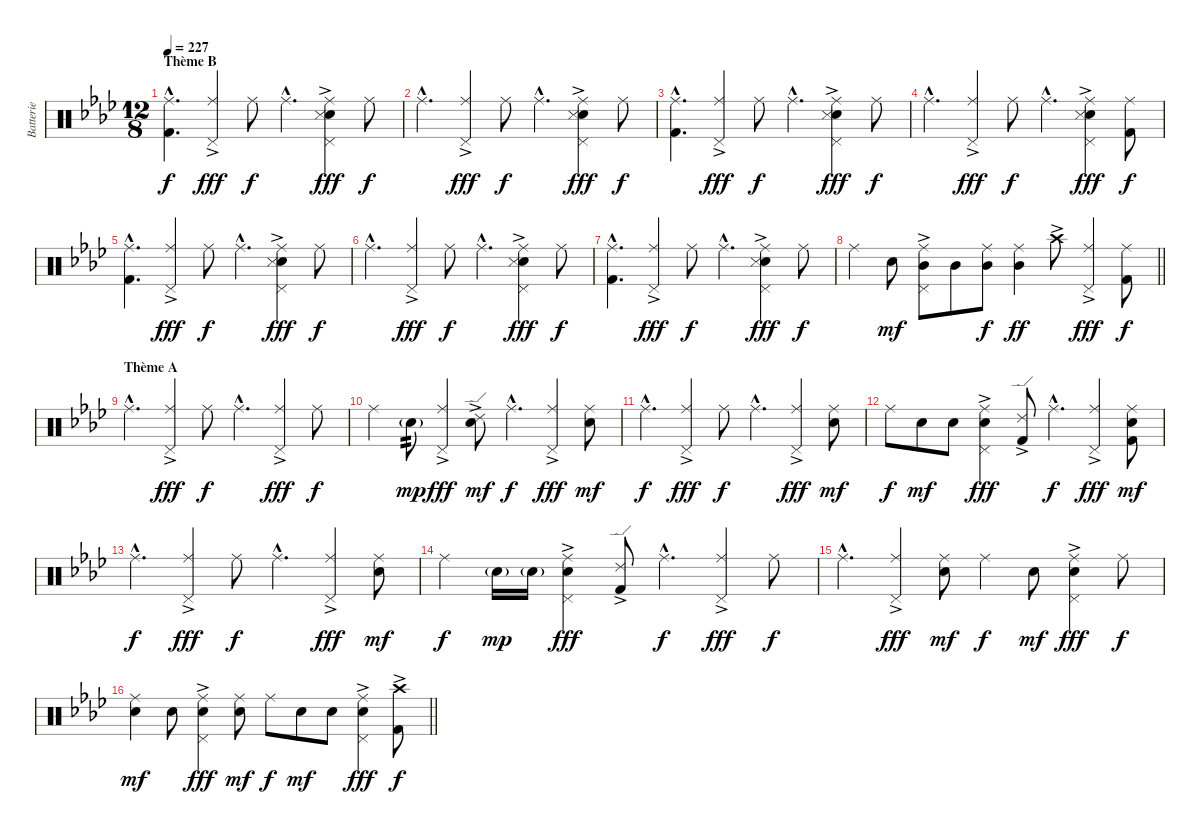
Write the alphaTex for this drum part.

\track ("Batterie" "Batterie") {instrument percussion}
\staff {score}
\articulation defaults
\ts (12 8)
\section ("" "Thème B")
\tempo 227
\clef neutral
\ks fminor
("Ride (middle)"{hac} "Kick (hit) 2"{hac}).4{d dy f volume 13 balance 8} ("Ride (middle)" "Pedal Hi-Hat (hit)"{ac}).4{dy fff} "Ride (middle)".8{dy f} "Ride (middle)"{hac}.4{d} ("Ride (middle)" "Pedal Hi-Hat (hit)"{ac} "Snare (hit) 2"{ac} "Snare (side stick) 3"{ac}).4{dy fff} "Ride (middle)".8{dy f} |
"Ride (middle)"{hac}.4{d} ("Ride (middle)" "Pedal Hi-Hat (hit)"{ac}).4{dy fff} "Ride (middle)".8{dy f} "Ride (middle)"{hac}.4{d} ("Ride (middle)" "Pedal Hi-Hat (hit)"{ac} "Snare (hit) 2"{ac} "Snare (side stick) 3"{ac}).4{dy fff} "Ride (middle)".8{dy f} |
("Ride (middle)"{hac} "Kick (hit) 2"{hac}).4{d} ("Ride (middle)" "Pedal Hi-Hat (hit)"{ac}).4{dy fff} "Ride (middle)".8{dy f} "Ride (middle)"{hac}.4{d} ("Ride (middle)" "Pedal Hi-Hat (hit)"{ac} "Snare (hit) 2"{ac} "Snare (side stick) 3"{ac}).4{dy fff} "Ride (middle)".8{dy f} |
"Ride (middle)"{hac}.4{d} ("Ride (middle)" "Pedal Hi-Hat (hit)"{ac}).4{dy fff} "Ride (middle)".8{dy f} "Ride (middle)"{hac}.4{d} ("Ride (middle)" "Pedal Hi-Hat (hit)"{ac} "Snare (hit) 2"{ac} "Snare (side stick) 3"{ac}).4{dy fff} ("Ride (middle)" "Kick (hit) 2").8{dy f} |
("Ride (middle)"{hac} "Kick (hit) 2"{hac}).4{d} ("Ride (middle)" "Pedal Hi-Hat (hit)"{ac}).4{dy fff} "Ride (middle)".8{dy f} "Ride (middle)"{hac}.4{d} ("Ride (middle)" "Pedal Hi-Hat (hit)"{ac} "Snare (hit) 2"{ac} "Snare (side stick) 3"{ac}).4{dy fff} "Ride (middle)".8{dy f} |
"Ride (middle)"{hac}.4{d} ("Ride (middle)" "Pedal Hi-Hat (hit)"{ac}).4{dy fff} "Ride (middle)".8{dy f} "Ride (middle)"{hac}.4{d} ("Ride (middle)" "Pedal Hi-Hat (hit)"{ac} "Snare (hit) 2"{ac} "Snare (side stick) 3"{ac}).4{dy fff} "Ride (middle)".8{dy f} |
("Ride (middle)"{hac} "Kick (hit) 2"{hac}).4{d} ("Ride (middle)" "Pedal Hi-Hat (hit)"{ac}).4{dy fff} "Ride (middle)".8{dy f} "Ride (middle)"{hac}.4{d} ("Ride (middle)" "Pedal Hi-Hat (hit)"{ac} "Snare (hit) 2"{ac} "Snare (side stick) 3"{ac}).4{dy fff} "Ride (middle)".8{dy f} |
\barLineRight lightlight "Ride (middle)".4 "Snare (hit) 2".8{dy mf}
("Ride (middle)" "Pedal Hi-Hat (hit)"{ac} "Mid Tom (hit)").8 "Mid Tom (hit)".8 ("Ride (middle)" "Mid Tom (hit)").8{dy f} ("Ride (middle)" "Mid Tom (hit)").4{dy ff} "Crash high (hit)"{ac}.8 ("Ride (middle)" "Pedal Hi-Hat (hit)"{ac}).4{dy fff} ("Ride (middle)" "Kick (hit) 2").8{dy f} |
\section ("" "Thème A")
"Ride (middle)"{hac}.4{d volume 12 balance 8} ("Ride (middle)" "Pedal Hi-Hat (hit)"{ac}).4{dy fff} "Ride (middle)".8{dy f} "Ride (middle)"{hac}.4{d} ("Ride (middle)" "Pedal Hi-Hat (hit)"{ac}).4{dy fff} "Ride (middle)".8{dy f} |
"Ride (middle)".4 "Snare (hit) 2"{g}.8{tp 2 dy mp} ("Ride (middle)" "Pedal Hi-Hat (hit)"{ac}).4{dy fff} ("Ride (edge) 2"{ac} "Snare (hit) 2").8{dy mf} "Ride (middle)"{hac}.4{d dy f} ("Ride (middle)" "Pedal Hi-Hat (hit)"{ac}).4{dy fff} ("Ride (middle)" "Snare (hit) 2").8{dy mf} |
"Ride (middle)"{hac}.4{d dy f} ("Ride (middle)" "Pedal Hi-Hat (hit)"{ac}).4{dy fff} "Ride (middle)".8{dy f} "Ride (middle)"{hac}.4{d} ("Ride (middle)" "Pedal Hi-Hat (hit)"{ac}).4{dy fff} ("Ride (middle)" "Snare (hit) 2").8{dy mf} |
"Ride (middle)".8{dy f} "Snare (hit) 2".8{dy mf} "Snare (hit) 2".8 ("Ride (middle)" "Pedal Hi-Hat (hit)"{ac} "Snare (hit) 2").4{dy fff} ("Ride (edge) 2"{ac} "Kick (hit) 2").8 "Ride (middle)"{hac}.4{d dy f} ("Ride (middle)" "Pedal Hi-Hat (hit)"{ac}).4{dy fff} ("Ride (middle)" "Snare (hit) 2" "Kick (hit) 2").8{dy mf} |
"Ride (middle)"{hac}.4{d dy f} ("Ride (middle)" "Pedal Hi-Hat (hit)"{ac}).4{dy fff} "Ride (middle)".8{dy f} "Ride (middle)"{hac}.4{d} ("Ride (middle)" "Pedal Hi-Hat (hit)"{ac}).4{dy fff} ("Ride (middle)" "Snare (hit) 2").8{dy mf} |
"Ride (middle)".4{dy f} "Snare (hit) 2"{g}.16{dy mp} "Snare (hit) 2"{g}.16 ("Ride (middle)" "Pedal Hi-Hat (hit)"{ac} "Snare (hit) 2").4{dy fff} ("Ride (edge) 2"{ac} "Kick (hit) 2").8 "Ride (middle)"{hac}.4{d dy f} ("Ride (middle)" "Pedal Hi-Hat (hit)"{ac}).4{dy fff} "Ride (middle)".8{dy f} |
"Ride (middle)"{hac}.4{d} ("Ride (middle)" "Pedal Hi-Hat (hit)"{ac}).4{dy fff} ("Ride (middle)" "Snare (hit) 2").8{dy mf} "Ride (middle)".4{dy f} "Snare (hit) 2".8{dy mf} ("Ride (middle)" "Pedal Hi-Hat (hit)"{ac} "Snare (hit) 2").4{dy fff} "Ride (middle)".8{dy f} |
\barLineRight lightlight
("Ride (middle)" "Snare (hit) 2").4{dy mf} "Snare (hit) 2".8 ("Ride (middle)" "Pedal Hi-Hat (hit)"{ac} "Snare (hit) 2").4{dy fff} ("Ride (middle)" "Snare (hit) 2").8{dy mf} "Ride (middle)".8{dy f} "Snare (hit) 2".8{dy mf} "Snare (hit) 2".8 ("Ride (middle)" "Pedal Hi-Hat (hit)"{ac} "Snare (hit) 2"{ac}).4{dy fff} ("Crash high (hit)"{ac} "Kick (hit) 2").8{dy f}
